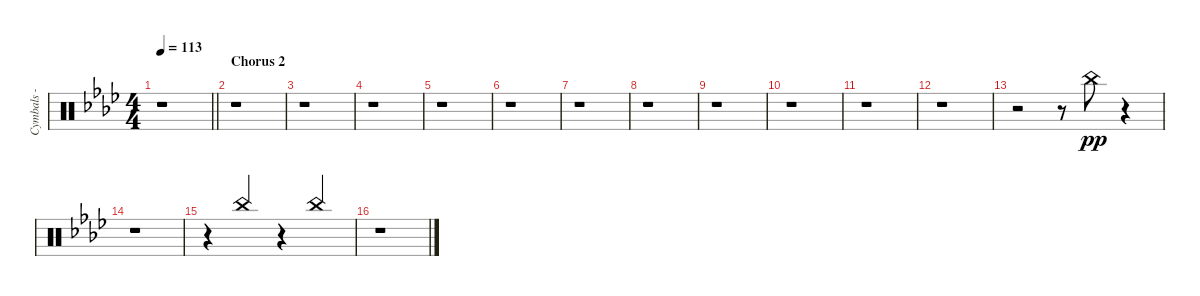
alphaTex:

\track ("Cymbals - china" "Cymbals - ") {instrument percussion}
\staff {score}
\articulation defaults
\ts (4 4)
\tempo 113
\clef neutral
\barLineRight lightlight
\ks fminor
r.1{dy pp} |
\section ("" "Chorus 2")
r.1 |
r.1 |
r.1 |
r.1 |
r.1 |
r.1 |
r.1 |
r.1 |
r.1 |
r.1 |
r.1 |
r.2 r.8 "China (hit)".8 r.4 |
r.1 |
r.4 "China (hit)".4{beam Up} r.4 "China (hit)".4{beam Up} |
r.1
